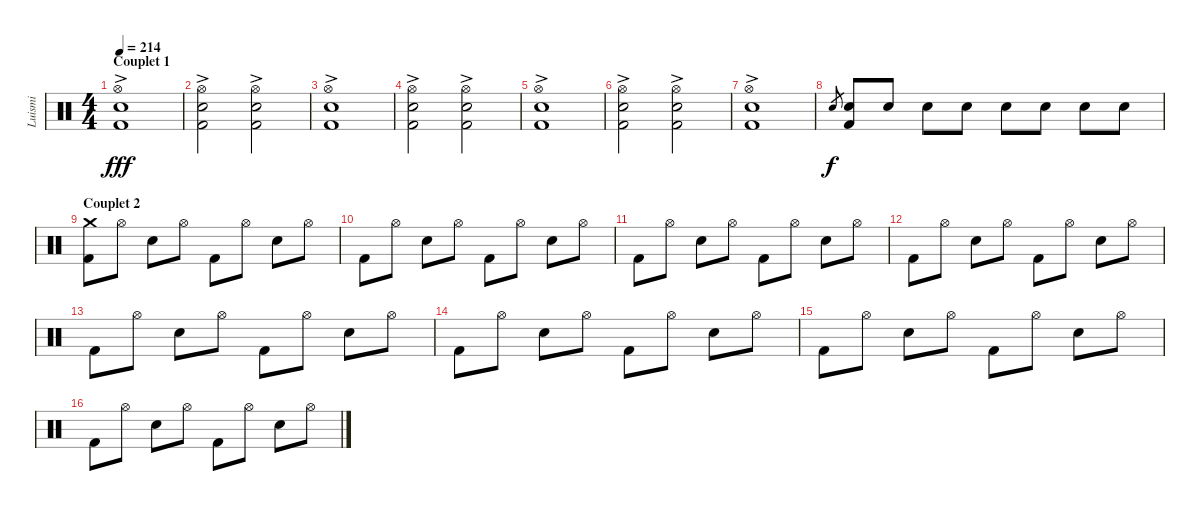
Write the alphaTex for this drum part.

\track ("Luismi" "Luismi") {instrument percussion}
\staff {score}
\articulation defaults
\ts (4 4)
\section ("" "Couplet 1")
\tempo 214
\clef neutral
\ks c
("Hi-Hat (open)"{ac} "Snare (hit) 2" "Kick (hit) 2").1{dy fff} |
("Hi-Hat (open)"{ac} "Snare (hit) 2" "Kick (hit) 2").2 ("Hi-Hat (open)"{ac} "Snare (hit) 2" "Kick (hit) 2").2 |
("Hi-Hat (open)"{ac} "Snare (hit) 2" "Kick (hit) 2").1 |
("Hi-Hat (open)"{ac} "Snare (hit) 2" "Kick (hit) 2").2 ("Hi-Hat (open)"{ac} "Snare (hit) 2" "Kick (hit) 2").2 |
("Hi-Hat (open)"{ac} "Snare (hit) 2" "Kick (hit) 2").1 |
("Hi-Hat (open)"{ac} "Snare (hit) 2" "Kick (hit) 2").2 ("Hi-Hat (open)"{ac} "Snare (hit) 2" "Kick (hit) 2").2 |
("Hi-Hat (open)"{ac} "Snare (hit) 2" "Kick (hit) 2").1 |
"Snare (hit) 2".8{gr dy f} ("Snare (hit) 2" "Kick (hit) 2").8 "Snare (hit) 2".8 "Snare (hit) 2".8 "Snare (hit) 2".8 "Snare (hit) 2".8 "Snare (hit) 2".8 "Snare (hit) 2".8 "Snare (hit) 2".8 |
\section ("" "Couplet 2")
("Crash medium (hit)" "Kick (hit) 2").8 "Hi-Hat (open)".8 "Snare (hit) 2".8 "Hi-Hat (open)".8 "Kick (hit) 2".8 "Hi-Hat (open)".8 "Snare (hit) 2".8 "Hi-Hat (open)".8 |
"Kick (hit) 2".8 "Hi-Hat (open)".8 "Snare (hit) 2".8 "Hi-Hat (open)".8 "Kick (hit) 2".8 "Hi-Hat (open)".8 "Snare (hit) 2".8 "Hi-Hat (open)".8 |
"Kick (hit) 2".8 "Hi-Hat (open)".8 "Snare (hit) 2".8 "Hi-Hat (open)".8 "Kick (hit) 2".8 "Hi-Hat (open)".8 "Snare (hit) 2".8 "Hi-Hat (open)".8 |
"Kick (hit) 2".8 "Hi-Hat (open)".8 "Snare (hit) 2".8 "Hi-Hat (open)".8 "Kick (hit) 2".8 "Hi-Hat (open)".8 "Snare (hit) 2".8 "Hi-Hat (open)".8 |
"Kick (hit) 2".8 "Hi-Hat (open)".8 "Snare (hit) 2".8 "Hi-Hat (open)".8 "Kick (hit) 2".8 "Hi-Hat (open)".8 "Snare (hit) 2".8 "Hi-Hat (open)".8 |
"Kick (hit) 2".8 "Hi-Hat (open)".8 "Snare (hit) 2".8 "Hi-Hat (open)".8 "Kick (hit) 2".8 "Hi-Hat (open)".8 "Snare (hit) 2".8 "Hi-Hat (open)".8 |
"Kick (hit) 2".8 "Hi-Hat (open)".8 "Snare (hit) 2".8 "Hi-Hat (open)".8 "Kick (hit) 2".8 "Hi-Hat (open)".8 "Snare (hit) 2".8 "Hi-Hat (open)".8 |
"Kick (hit) 2".8 "Hi-Hat (open)".8 "Snare (hit) 2".8 "Hi-Hat (open)".8 "Kick (hit) 2".8 "Hi-Hat (open)".8 "Snare (hit) 2".8 "Hi-Hat (open)".8
